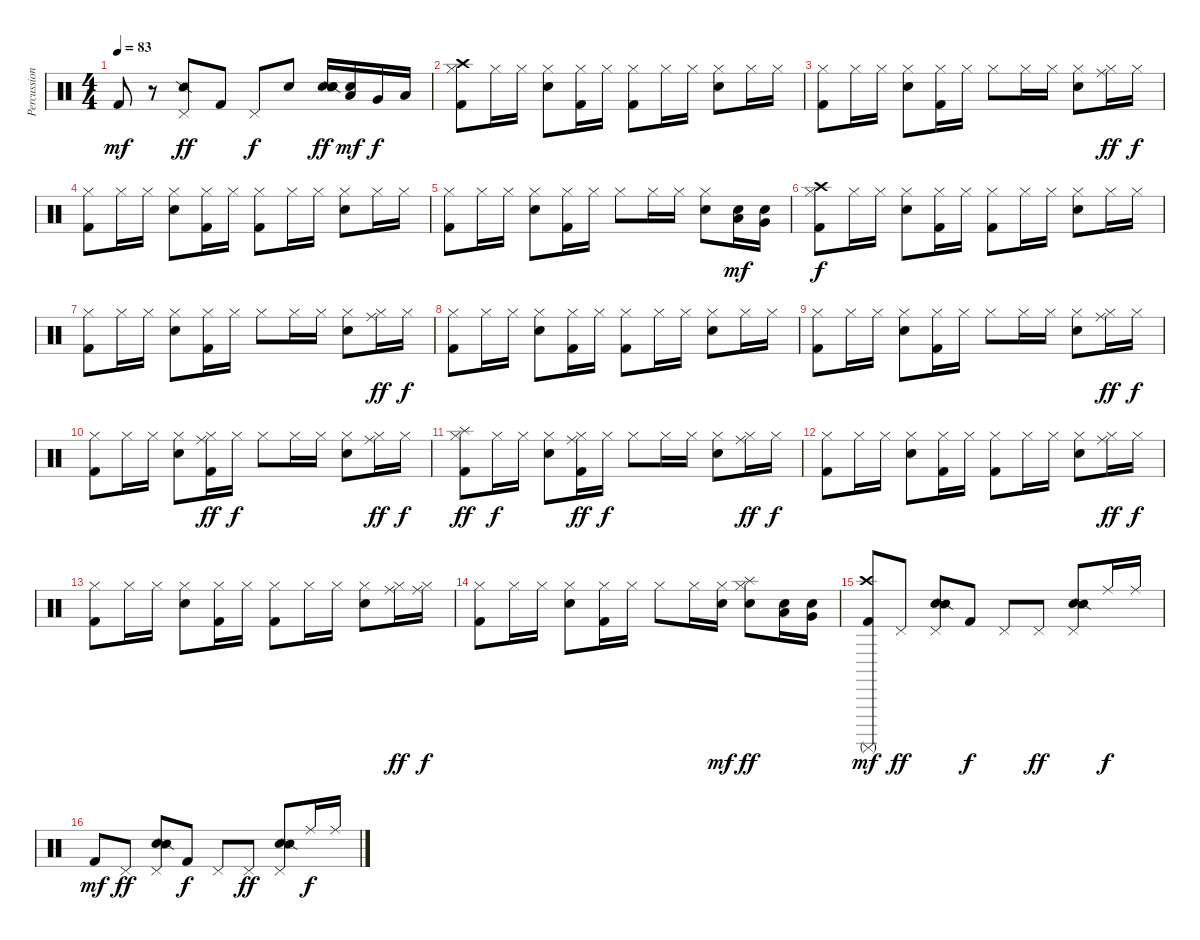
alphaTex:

\track ("Percussion" "Percussion") {instrument percussion}
\staff {score}
\articulation defaults
\ts (4 4)
\tempo 83
\clef neutral
\ks c "Kick (hit) 2".8{dy mf}
r.8 ("Pedal Hi-Hat (hit)" "Snare (side stick) 2").8{dy ff} "Kick (hit) 2".8 "Pedal Hi-Hat (hit)".8{dy f} "Electric Snare (hit)".8 ("Snare (hit) 2" "Hand Clap (hit)" "Snare (side stick) 2").16{dy ff} ("Snare (hit) 2" "Low Tom (hit)").16{dy mf} "Very Low Tom (hit)".16{dy f} "Low Floor Tom (hit)".16 |
("Kick (hit) 2" "Hi-Hat (closed)" "Crash high (hit)").8 "Hi-Hat (closed)".16 "Hi-Hat (closed)".16 ("Hi-Hat (closed)" "Electric Snare (hit)").8 ("Hi-Hat (closed)" "Kick (hit) 2").16 "Hi-Hat (closed)".16 ("Hi-Hat (closed)" "Kick (hit) 2").8 "Hi-Hat (closed)".16 "Hi-Hat (closed)".16 ("Hi-Hat (closed)" "Electric Snare (hit)").8 "Hi-Hat (closed)".16 "Hi-Hat (closed)".16 |
("Hi-Hat (closed)" "Kick (hit) 2").8 "Hi-Hat (closed)".16 "Hi-Hat (closed)".16 ("Hi-Hat (closed)" "Electric Snare (hit)").8 ("Hi-Hat (closed)" "Kick (hit) 2").16 "Hi-Hat (closed)".16 "Hi-Hat (closed)".8 "Hi-Hat (closed)".16 "Hi-Hat (closed)".16 ("Hi-Hat (closed)" "Electric Snare (hit)").8 ("Hi-Hat (closed)" "Ride (middle)").16{dy ff} "Hi-Hat (closed)".16{dy f} |
("Kick (hit) 2" "Hi-Hat (closed)").8 "Hi-Hat (closed)".16 "Hi-Hat (closed)".16 ("Hi-Hat (closed)" "Electric Snare (hit)").8 ("Hi-Hat (closed)" "Kick (hit) 2").16 "Hi-Hat (closed)".16 ("Hi-Hat (closed)" "Kick (hit) 2").8 "Hi-Hat (closed)".16 "Hi-Hat (closed)".16 ("Hi-Hat (closed)" "Electric Snare (hit)").8 "Hi-Hat (closed)".16 "Hi-Hat (closed)".16 |
("Hi-Hat (closed)" "Kick (hit) 2").8 "Hi-Hat (closed)".16 "Hi-Hat (closed)".16 ("Hi-Hat (closed)" "Electric Snare (hit)").8 ("Hi-Hat (closed)" "Kick (hit) 2").16 "Hi-Hat (closed)".16 "Hi-Hat (closed)".8 "Hi-Hat (closed)".16 "Hi-Hat (closed)".16 ("Hi-Hat (closed)" "Electric Snare (hit)").8 ("Electric Snare (hit)" "Low Tom (hit)").16{dy mf} ("Electric Snare (hit)" "Very Low Tom (hit)").16 |
("Kick (hit) 2" "Hi-Hat (closed)" "Crash high (hit)").8{dy f} "Hi-Hat (closed)".16 "Hi-Hat (closed)".16 ("Hi-Hat (closed)" "Electric Snare (hit)").8 ("Hi-Hat (closed)" "Kick (hit) 2").16 "Hi-Hat (closed)".16 ("Hi-Hat (closed)" "Kick (hit) 2").8 "Hi-Hat (closed)".16 "Hi-Hat (closed)".16 ("Hi-Hat (closed)" "Electric Snare (hit)").8 "Hi-Hat (closed)".16 "Hi-Hat (closed)".16 |
("Hi-Hat (closed)" "Kick (hit) 2").8 "Hi-Hat (closed)".16 "Hi-Hat (closed)".16 ("Hi-Hat (closed)" "Electric Snare (hit)").8 ("Hi-Hat (closed)" "Kick (hit) 2").16 "Hi-Hat (closed)".16 "Hi-Hat (closed)".8 "Hi-Hat (closed)".16 "Hi-Hat (closed)".16 ("Hi-Hat (closed)" "Electric Snare (hit)").8 ("Hi-Hat (closed)" "Ride (middle)").16{dy ff} "Hi-Hat (closed)".16{dy f} |
("Kick (hit) 2" "Hi-Hat (closed)").8 "Hi-Hat (closed)".16 "Hi-Hat (closed)".16 ("Hi-Hat (closed)" "Electric Snare (hit)").8 ("Hi-Hat (closed)" "Kick (hit) 2").16 "Hi-Hat (closed)".16 ("Hi-Hat (closed)" "Kick (hit) 2").8 "Hi-Hat (closed)".16 "Hi-Hat (closed)".16 ("Hi-Hat (closed)" "Electric Snare (hit)").8 "Hi-Hat (closed)".16 "Hi-Hat (closed)".16 |
("Hi-Hat (closed)" "Kick (hit) 2").8 "Hi-Hat (closed)".16 "Hi-Hat (closed)".16 ("Hi-Hat (closed)" "Electric Snare (hit)").8 ("Hi-Hat (closed)" "Kick (hit) 2").16 "Hi-Hat (closed)".16 "Hi-Hat (closed)".8 "Hi-Hat (closed)".16 "Hi-Hat (closed)".16 ("Hi-Hat (closed)" "Electric Snare (hit)").8 ("Hi-Hat (closed)" "Ride (middle)").16{dy ff} "Hi-Hat (closed)".16{dy f} |
("Hi-Hat (closed)" "Kick (hit) 2").8 "Hi-Hat (closed)".16 "Hi-Hat (closed)".16 ("Hi-Hat (closed)" "Electric Snare (hit)").8 ("Hi-Hat (closed)" "Kick (hit) 2" "Ride (middle)").16{dy ff} "Hi-Hat (closed)".16{dy f} "Hi-Hat (closed)".8 "Hi-Hat (closed)".16 "Hi-Hat (closed)".16 ("Hi-Hat (closed)" "Electric Snare (hit)").8 ("Hi-Hat (closed)" "Ride (middle)").16{dy ff} "Hi-Hat (closed)".16{dy f} |
("Hi-Hat (closed)" "Kick (hit) 2" "Splash (hit)").8{dy ff} "Hi-Hat (closed)".16{dy f} "Hi-Hat (closed)".16 ("Hi-Hat (closed)" "Electric Snare (hit)").8 ("Hi-Hat (closed)" "Kick (hit) 2" "Ride (middle)").16{dy ff} "Hi-Hat (closed)".16{dy f} "Hi-Hat (closed)".8 "Hi-Hat (closed)".16 "Hi-Hat (closed)".16 ("Hi-Hat (closed)" "Electric Snare (hit)").8 ("Hi-Hat (closed)" "Ride (middle)").16{dy ff} "Hi-Hat (closed)".16{dy f} |
("Hi-Hat (closed)" "Kick (hit) 2").8 "Hi-Hat (closed)".16 "Hi-Hat (closed)".16 ("Hi-Hat (closed)" "Electric Snare (hit)").8 ("Hi-Hat (closed)" "Kick (hit) 2").16 "Hi-Hat (closed)".16 ("Hi-Hat (closed)" "Kick (hit) 2").8 "Hi-Hat (closed)".16 "Hi-Hat (closed)".16 ("Hi-Hat (closed)" "Electric Snare (hit)").8 ("Hi-Hat (closed)" "Ride (middle)").16{dy ff} "Hi-Hat (closed)".16{dy f} |
("Hi-Hat (closed)" "Kick (hit) 2").8 "Hi-Hat (closed)".16 "Hi-Hat (closed)".16 ("Hi-Hat (closed)" "Electric Snare (hit)").8 ("Hi-Hat (closed)" "Kick (hit) 2").16 "Hi-Hat (closed)".16 ("Hi-Hat (closed)" "Kick (hit) 2").8 "Hi-Hat (closed)".16 "Hi-Hat (closed)".16 ("Hi-Hat (closed)" "Electric Snare (hit)").8 ("Hi-Hat (closed)" "Ride (middle)").16{dy ff} ("Hi-Hat (closed)" "Ride (middle)").16{dy f} |
("Hi-Hat (closed)" "Kick (hit) 2").8 "Hi-Hat (closed)".16 "Hi-Hat (closed)".16 ("Hi-Hat (closed)" "Electric Snare (hit)").8 ("Hi-Hat (closed)" "Kick (hit) 2").16 "Hi-Hat (closed)".16 "Hi-Hat (closed)".8 "Hi-Hat (closed)".16 ("Hi-Hat (closed)" "Electric Snare (hit)").16{dy mf} ("Hi-Hat (closed)" "Electric Snare (hit)" "Splash (hit)").8{dy ff} ("Electric Snare (hit)" "Low Tom (hit)").16 ("Electric Snare (hit)" "Very Low Tom (hit)").16 |
("Kick (hit) 2" "Surdo (mute)" "Crash high (hit)").8{dy mf} "Pedal Hi-Hat (hit)".8{dy ff} ("Pedal Hi-Hat (hit)" "Hand Clap (hit)" "Snare (side stick) 2").8 "Kick (hit) 2".8{dy f} "Pedal Hi-Hat (hit)".8 "Pedal Hi-Hat (hit)".8{dy ff} ("Pedal Hi-Hat (hit)" "Hand Clap (hit)" "Snare (side stick) 2").8 "Ride (middle)".16{dy f} "Ride (middle)".16 |
"Kick (hit) 2".8{dy mf} "Pedal Hi-Hat (hit)".8{dy ff} ("Pedal Hi-Hat (hit)" "Hand Clap (hit)" "Snare (side stick) 2").8 "Kick (hit) 2".8{dy f} "Pedal Hi-Hat (hit)".8 "Pedal Hi-Hat (hit)".8{dy ff} ("Pedal Hi-Hat (hit)" "Hand Clap (hit)" "Snare (side stick) 2").8 "Ride (middle)".16{dy f} "Ride (middle)".16
